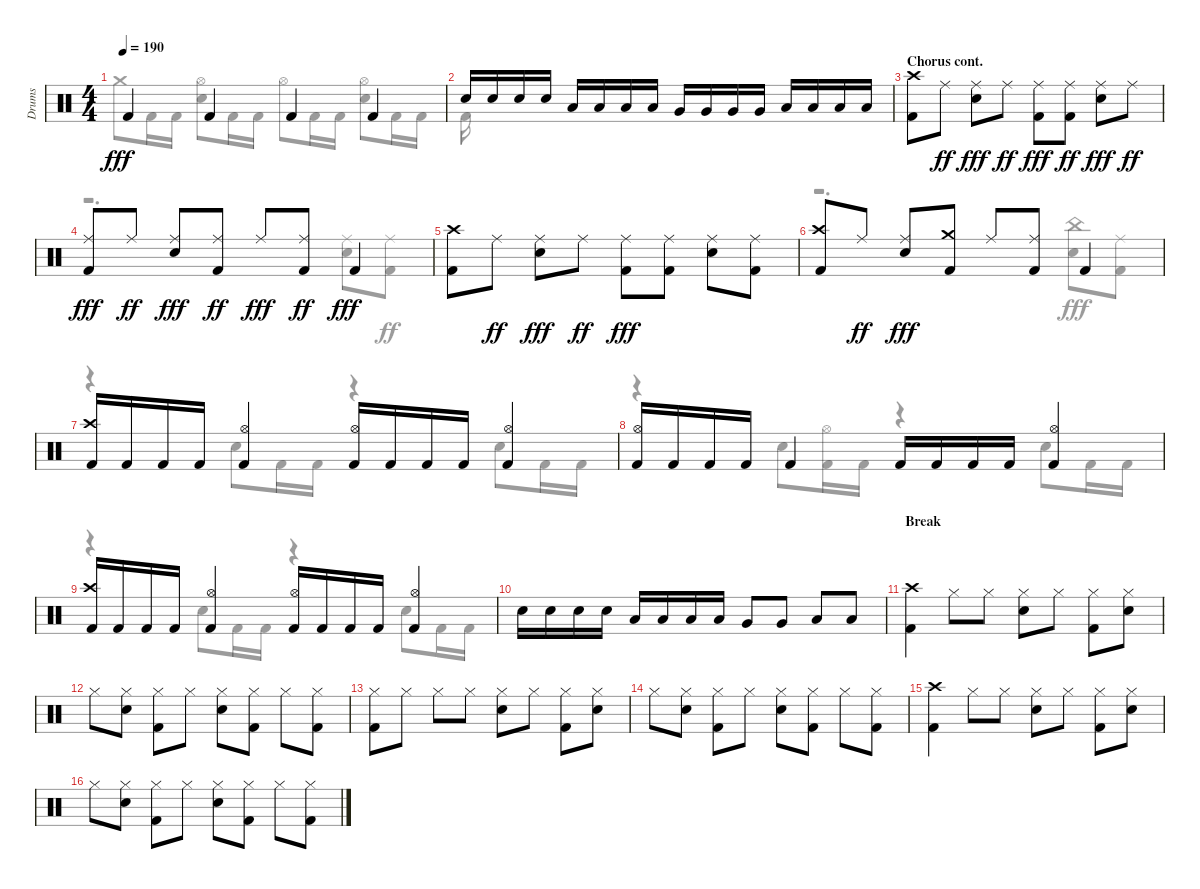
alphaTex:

\track ("Drums" "Drums") {instrument percussion}
\staff {score}
\articulation defaults
\voice
\ts (4 4)
\tempo 190
\clef neutral
\ks aminor "Kick (hit) 2".4{dy fff} "Kick (hit) 2".4 "Kick (hit) 2".4 "Kick (hit) 2".4
|
"Snare (hit) 2".16 "Snare (hit) 2".16 "Snare (hit) 2".16 "Snare (hit) 2".16 "Low Tom (hit)".16 "Low Tom (hit)".16 "Low Tom (hit)".16 "Low Tom (hit)".16 "Very Low Tom (hit)".16 "Very Low Tom (hit)".16 "Very Low Tom (hit)".16 "Very Low Tom (hit)".16 "Low Floor Tom (hit)".16 "Low Floor Tom (hit)".16 "Low Floor Tom (hit)".16 "Low Floor Tom (hit)".16 |
\section ("" "Chorus cont.")
("Crash high (hit)" "Kick (hit) 2").8 "Ride (middle)".8{dy ff} ("Snare (hit) 2" "Ride (middle)").8{dy fff} "Ride (middle)".8{dy ff} ("Ride (middle)" "Kick (hit) 2").8{dy fff} ("Ride (middle)" "Kick (hit) 2").8{dy ff} ("Ride (middle)" "Snare (hit) 2").8{dy fff} "Ride (middle)".8{dy ff} |
("Ride (middle)" "Kick (hit) 2").8{dy fff} "Ride (middle)".8{dy ff} ("Snare (hit) 2" "Ride (middle)").8{dy fff} ("Kick (hit) 2" "Ride (middle)").8{dy ff} "Ride (middle)".8{dy fff} ("Kick (hit) 2" "Ride (middle)").8{dy ff} "Kick (hit) 2".4{dy fff} |
("Kick (hit) 2" "Crash high (hit)").8 "Ride (middle)".8{dy ff} ("Snare (hit) 2" "Ride (middle)").8{dy fff} "Ride (middle)".8{dy ff} ("Ride (middle)" "Kick (hit) 2").8{dy fff} ("Kick (hit) 2" "Ride (middle)").8 ("Ride (middle)" "Snare (hit) 2").8 ("Ride (middle)" "Kick (hit) 2").8 |
("Crash high (hit)" "Kick (hit) 2").8 "Ride (middle)".8{dy ff} ("Snare (hit) 2" "Ride (middle)").8{dy fff} ("Kick (hit) 2" "Crash medium (hit)").8 "Ride (middle)".8 ("Kick (hit) 2" "Ride (middle)").8 "Kick (hit) 2".4 |
("Kick (hit) 2" "Crash high (hit)").16 "Kick (hit) 2".16 "Kick (hit) 2".16 "Kick (hit) 2".16 ("Kick (hit) 2" "Hi-Hat (open)").4 ("Hi-Hat (open)" "Kick (hit) 2").16 "Kick (hit) 2".16 "Kick (hit) 2".16 "Kick (hit) 2".16 ("Kick (hit) 2" "Hi-Hat (open)").4 |
("Kick (hit) 2" "Hi-Hat (open)").16 "Kick (hit) 2".16 "Kick (hit) 2".16 "Kick (hit) 2".16 "Kick (hit) 2".4 "Kick (hit) 2".16 "Kick (hit) 2".16 "Kick (hit) 2".16 "Kick (hit) 2".16 ("Hi-Hat (open)" "Kick (hit) 2").4 |
("Crash high (hit)" "Kick (hit) 2").16 "Kick (hit) 2".16 "Kick (hit) 2".16 "Kick (hit) 2".16 ("Kick (hit) 2" "Hi-Hat (open)").4 ("Hi-Hat (open)" "Kick (hit) 2").16 "Kick (hit) 2".16 "Kick (hit) 2".16 "Kick (hit) 2".16 ("Hi-Hat (open)" "Kick (hit) 2").4 |
"Snare (hit) 2".16 "Snare (hit) 2".16 "Snare (hit) 2".16 "Snare (hit) 2".16 "Low Tom (hit)".16 "Low Tom (hit)".16 "Low Tom (hit)".16 "Low Tom (hit)".16 "Very Low Tom (hit)".8 "Very Low Tom (hit)".8 "Low Floor Tom (hit)".8 "Low Floor Tom (hit)".8 |
\section ("" "Break")
("Kick (hit) 2" "Crash high (hit)").4 "Hi-Hat (closed)".8 "Hi-Hat (closed)".8 ("Hi-Hat (closed)" "Snare (hit) 2").8 "Hi-Hat (closed)".8 ("Hi-Hat (closed)" "Kick (hit) 2").8 ("Hi-Hat (closed)" "Snare (hit) 2").8 |
"Hi-Hat (closed)".8 ("Hi-Hat (closed)" "Snare (hit) 2").8 ("Hi-Hat (closed)" "Kick (hit) 2").8 "Hi-Hat (closed)".8 ("Snare (hit) 2" "Hi-Hat (closed)").8 ("Hi-Hat (closed)" "Kick (hit) 2").8 "Hi-Hat (closed)".8 ("Hi-Hat (closed)" "Kick (hit) 2").8 |
("Hi-Hat (closed)" "Kick (hit) 2").8 "Hi-Hat (closed)".8 "Hi-Hat (closed)".8 "Hi-Hat (closed)".8 ("Hi-Hat (closed)" "Snare (hit) 2").8 "Hi-Hat (closed)".8 ("Hi-Hat (closed)" "Kick (hit) 2").8 ("Hi-Hat (closed)" "Snare (hit) 2").8 |
"Hi-Hat (closed)".8 ("Hi-Hat (closed)" "Snare (hit) 2").8 ("Kick (hit) 2" "Hi-Hat (closed)").8 "Hi-Hat (closed)".8 ("Hi-Hat (closed)" "Snare (hit) 2").8 ("Hi-Hat (closed)" "Kick (hit) 2").8 "Hi-Hat (closed)".8 ("Hi-Hat (closed)" "Kick (hit) 2").8 |
("Crash high (hit)" "Kick (hit) 2").4 "Hi-Hat (closed)".8 "Hi-Hat (closed)".8 ("Snare (hit) 2" "Hi-Hat (closed)").8 "Hi-Hat (closed)".8 ("Hi-Hat (closed)" "Kick (hit) 2").8 ("Snare (hit) 2" "Hi-Hat (closed)").8 |
"Hi-Hat (closed)".8 ("Hi-Hat (closed)" "Snare (hit) 2").8 ("Kick (hit) 2" "Hi-Hat (closed)").8 "Hi-Hat (closed)".8 ("Snare (hit) 2" "Hi-Hat (closed)").8 ("Hi-Hat (closed)" "Kick (hit) 2").8 "Hi-Hat (closed)".8 ("Hi-Hat (closed)" "Kick (hit) 2").8
\voice
\clef neutral
\ottava regular
\simile none
\ks aminor "Crash medium (hit)".8{dy fff} "Kick (hit) 2".16 "Kick (hit) 2".16
("Snare (hit) 2" "Hi-Hat (open)").8 "Kick (hit) 2".16 "Kick (hit) 2".16 "Hi-Hat (open)".8 "Kick (hit) 2".16 "Kick (hit) 2".16 ("Hi-Hat (open)" "Snare (hit) 2").8 "Kick (hit) 2".16 "Kick (hit) 2".16 |
"Kick (hit) 2".16 |
|
r.2{d} ("Snare (hit) 2" "Ride (middle)").8 ("Ride (middle)" "Kick (hit) 2").8{dy ff} |
|
r.2{d} ("China (hit)" "Snare (hit) 2").8{dy fff} ("Kick (hit) 2" "Ride (middle)").8 |
r.4 "Snare (hit) 2".8 "Kick (hit) 2".16 "Kick (hit) 2".16 r.4 "Snare (hit) 2".8 "Kick (hit) 2".16 "Kick (hit) 2".16 |
r.4 "Snare (hit) 2".8 ("Kick (hit) 2" "Hi-Hat (open)").16 "Kick (hit) 2".16 r.4 "Snare (hit) 2".8 "Kick (hit) 2".16 "Kick (hit) 2".16 |
r.4 "Snare (hit) 2".8 "Kick (hit) 2".16 "Kick (hit) 2".16 r.4 "Snare (hit) 2".8 "Kick (hit) 2".16 "Kick (hit) 2".16 |
|
|
|
|
|
|
